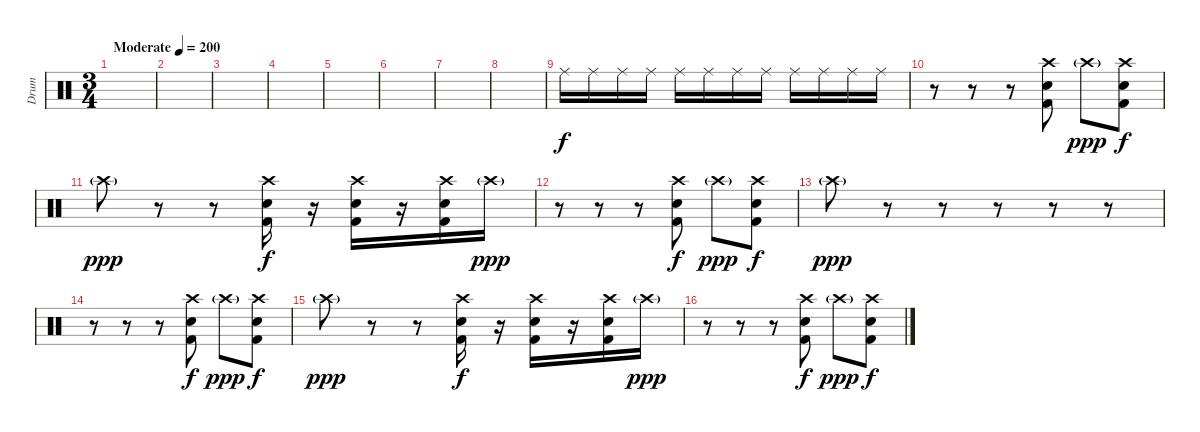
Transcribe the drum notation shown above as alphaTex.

\track ("Drum" "Drum") {instrument percussion}
\staff {score}
\articulation defaults
\ts (3 4)
\tempo (200 "Moderate")
\clef neutral
\ks c
|
|
|
|
|
|
|
|
"Ride (middle)".16{volume 16} "Ride (middle)".16 "Ride (middle)".16 "Ride (middle)".16 "Ride (middle)".16 "Ride (middle)".16 "Ride (middle)".16 "Ride (middle)".16 "Ride (middle)".16 "Ride (middle)".16 "Ride (middle)".16 "Ride (middle)".16 |
r.8 r.8 r.8 ("Crash high (hit)" "Electric Snare (hit)" "Kick (hit) 2").8 "Crash high (hit)"{g}.8{dy ppp} ("Crash high (hit)" "Electric Snare (hit)" "Kick (hit) 2").8{dy f} |
"Crash high (hit)"{g}.8{dy ppp} r.8 r.8 ("Crash high (hit)" "Electric Snare (hit)" "Kick (hit) 2").16{dy f} r.16 ("Crash high (hit)" "Electric Snare (hit)" "Kick (hit) 2").16 r.16 ("Crash high (hit)" "Electric Snare (hit)" "Kick (hit) 2").16 "Crash high (hit)"{g}.16{dy ppp} |
r.8 r.8 r.8 ("Crash high (hit)" "Electric Snare (hit)" "Kick (hit) 2").8{dy f} "Crash high (hit)"{g}.8{dy ppp} ("Crash high (hit)" "Electric Snare (hit)" "Kick (hit) 2").8{dy f} |
"Crash high (hit)"{g}.8{dy ppp} r.8 r.8 r.8 r.8 r.8 |
r.8 r.8 r.8 ("Crash high (hit)" "Electric Snare (hit)" "Kick (hit) 2").8{dy f} "Crash high (hit)"{g}.8{dy ppp} ("Crash high (hit)" "Electric Snare (hit)" "Kick (hit) 2").8{dy f} |
"Crash high (hit)"{g}.8{dy ppp} r.8 r.8 ("Crash high (hit)" "Electric Snare (hit)" "Kick (hit) 2").16{dy f} r.16 ("Crash high (hit)" "Electric Snare (hit)" "Kick (hit) 2").16 r.16 ("Crash high (hit)" "Electric Snare (hit)" "Kick (hit) 2").16 "Crash high (hit)"{g}.16{dy ppp} |
r.8 r.8 r.8 ("Crash high (hit)" "Electric Snare (hit)" "Kick (hit) 2").8{dy f} "Crash high (hit)"{g}.8{dy ppp} ("Crash high (hit)" "Electric Snare (hit)" "Kick (hit) 2").8{dy f}
